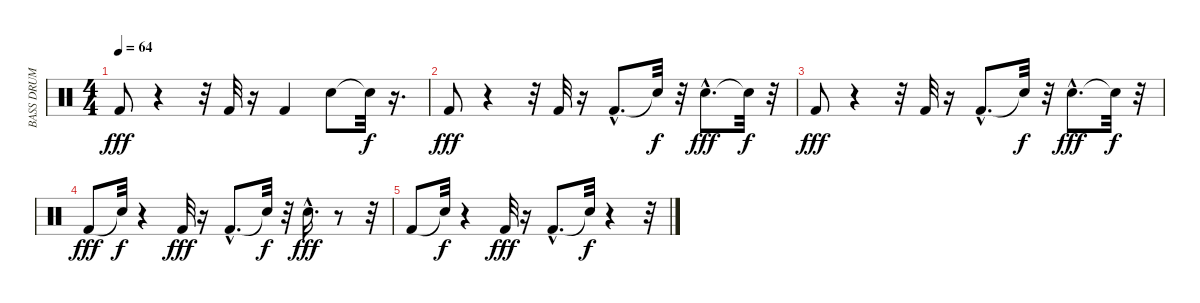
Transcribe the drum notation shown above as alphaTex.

\track ("BASS DRUM" "BASS DRUM") {instrument percussion}
\staff {score}
\articulation defaults
\ts (4 4)
\tempo 64
\clef neutral
\ks c "Kick (hit) 2".8{dy fff}
r.4 r.32 "Kick (hit) 2".32 r.16 "Kick (hit) 2".4 "Snare (hit) 2".8 "Snare (hit)"{t}.32{dy f} r.16{d} |
"Kick (hit) 2".8{dy fff} r.4 r.32 "Kick (hit) 2".32 r.16 "Kick (hit) 2"{hac}.8{d} "Snare (hit)"{t}.32{dy f} r.32 "Snare (hit) 2"{hac}.8{d dy fff} "Snare (hit)"{t}.32{dy f} r.32 |
"Kick (hit) 2".8{dy fff} r.4 r.32 "Kick (hit) 2".32 r.16 "Kick (hit) 2"{hac}.8{d} "Snare (hit)"{t}.32{dy f} r.32 "Snare (hit) 2"{hac}.8{d dy fff} "Snare (hit)"{t}.32{dy f} r.32 |
"Kick (hit) 2".8{dy fff} "Snare (hit)"{t}.32{dy f} r.4 "Kick (hit) 2".32{dy fff} r.16 "Kick (hit) 2"{hac}.8{d} "Snare (hit)"{t}.32{dy f} r.32 "Snare (hit) 2"{hac}.16{d dy fff} r.8 r.32 |
"Kick (hit) 2".8 "Snare (hit)"{t}.32{dy f} r.4 "Kick (hit) 2".32{dy fff} r.16 "Kick (hit) 2"{hac}.8{d} "Snare (hit)"{t}.32{dy f} r.4 r.32
